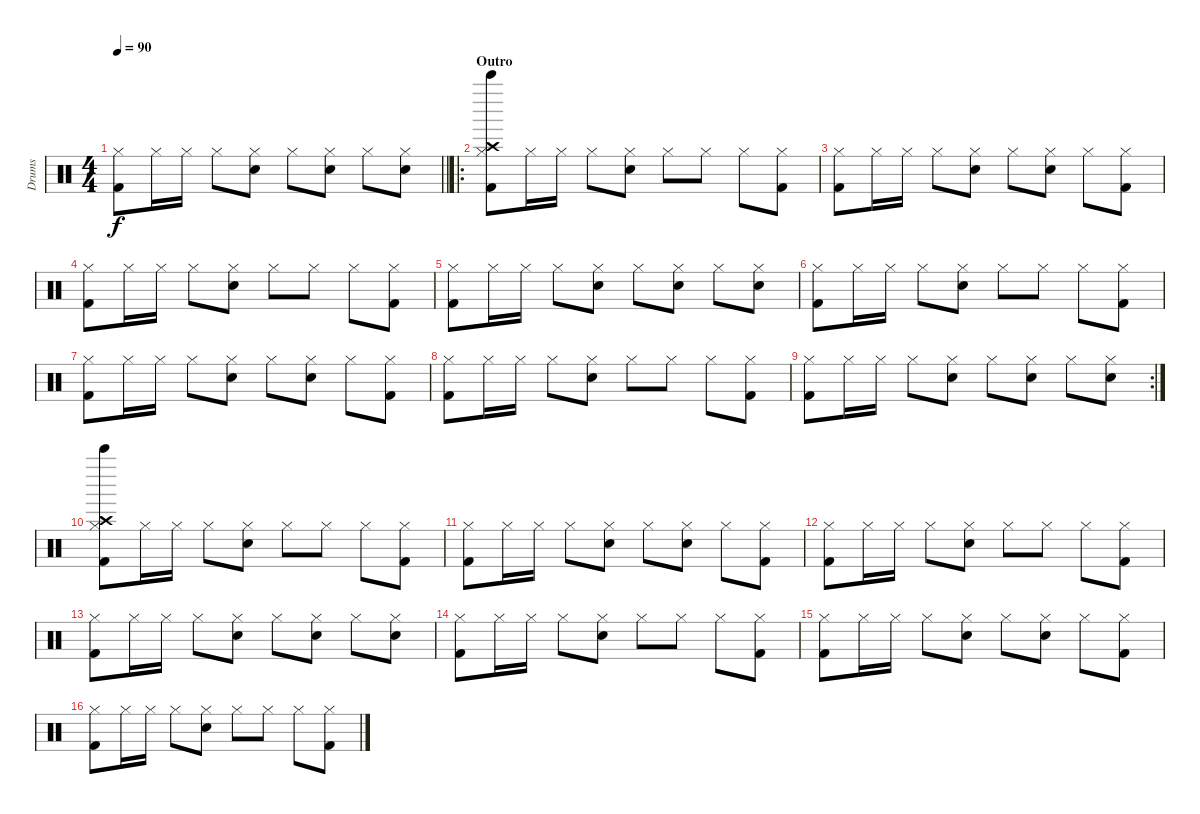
\track ("Drums" "Drums") {instrument percussion}
\staff {score}
\articulation defaults
\ts (4 4)
\tempo 90
\clef neutral
\barLineRight lightlight
\ks c
("Hi-Hat (closed)" "Kick (hit) 2").8{dy f} "Hi-Hat (closed)".16 "Hi-Hat (closed)".16 "Hi-Hat (closed)".8 ("Hi-Hat (closed)" "Snare (hit) 2").8 "Hi-Hat (closed)".8 ("Hi-Hat (closed)" "Snare (hit) 2").8 "Hi-Hat (closed)".8 ("Hi-Hat (closed)" "Snare (hit) 2").8 |
\ro
\section ("" "Outro")
("Hi-Hat (closed)" "Kick (hit) 2" "Crash high (hit)" "Bell Tree (hit)").8 "Hi-Hat (closed)".16 "Hi-Hat (closed)".16 "Hi-Hat (closed)".8 ("Hi-Hat (closed)" "Snare (hit) 2").8 "Hi-Hat (closed)".8 "Hi-Hat (closed)".8 "Hi-Hat (closed)".8 ("Hi-Hat (closed)" "Kick (hit) 2").8 |
("Hi-Hat (closed)" "Kick (hit) 2").8 "Hi-Hat (closed)".16 "Hi-Hat (closed)".16 "Hi-Hat (closed)".8 ("Hi-Hat (closed)" "Snare (hit) 2").8 "Hi-Hat (closed)".8 ("Hi-Hat (closed)" "Snare (hit) 2").8 "Hi-Hat (closed)".8 ("Hi-Hat (closed)" "Kick (hit) 2").8 |
("Hi-Hat (closed)" "Kick (hit) 2").8 "Hi-Hat (closed)".16 "Hi-Hat (closed)".16 "Hi-Hat (closed)".8 ("Hi-Hat (closed)" "Snare (hit) 2").8 "Hi-Hat (closed)".8 "Hi-Hat (closed)".8 "Hi-Hat (closed)".8 ("Hi-Hat (closed)" "Kick (hit) 2").8 |
("Hi-Hat (closed)" "Kick (hit) 2").8 "Hi-Hat (closed)".16 "Hi-Hat (closed)".16 "Hi-Hat (closed)".8 ("Hi-Hat (closed)" "Snare (hit) 2").8 "Hi-Hat (closed)".8 ("Hi-Hat (closed)" "Snare (hit) 2").8 "Hi-Hat (closed)".8 ("Hi-Hat (closed)" "Snare (hit) 2").8 |
("Hi-Hat (closed)" "Kick (hit) 2").8 "Hi-Hat (closed)".16 "Hi-Hat (closed)".16 "Hi-Hat (closed)".8 ("Hi-Hat (closed)" "Snare (hit) 2").8 "Hi-Hat (closed)".8 "Hi-Hat (closed)".8 "Hi-Hat (closed)".8 ("Hi-Hat (closed)" "Kick (hit) 2").8 |
("Hi-Hat (closed)" "Kick (hit) 2").8 "Hi-Hat (closed)".16 "Hi-Hat (closed)".16 "Hi-Hat (closed)".8 ("Hi-Hat (closed)" "Snare (hit) 2").8 "Hi-Hat (closed)".8 ("Hi-Hat (closed)" "Snare (hit) 2").8 "Hi-Hat (closed)".8 ("Hi-Hat (closed)" "Kick (hit) 2").8 |
("Hi-Hat (closed)" "Kick (hit) 2").8 "Hi-Hat (closed)".16 "Hi-Hat (closed)".16 "Hi-Hat (closed)".8 ("Hi-Hat (closed)" "Snare (hit) 2").8 "Hi-Hat (closed)".8 "Hi-Hat (closed)".8 "Hi-Hat (closed)".8 ("Hi-Hat (closed)" "Kick (hit) 2").8 |
\rc 2
("Hi-Hat (closed)" "Kick (hit) 2").8 "Hi-Hat (closed)".16 "Hi-Hat (closed)".16 "Hi-Hat (closed)".8 ("Hi-Hat (closed)" "Snare (hit) 2").8 "Hi-Hat (closed)".8 ("Hi-Hat (closed)" "Snare (hit) 2").8 "Hi-Hat (closed)".8 ("Hi-Hat (closed)" "Snare (hit) 2").8 |
("Hi-Hat (closed)" "Crash high (hit)" "Kick (hit) 2" "Bell Tree (hit)").8 "Hi-Hat (closed)".16 "Hi-Hat (closed)".16 "Hi-Hat (closed)".8 ("Hi-Hat (closed)" "Snare (hit) 2").8 "Hi-Hat (closed)".8 "Hi-Hat (closed)".8 "Hi-Hat (closed)".8 ("Hi-Hat (closed)" "Kick (hit) 2").8 |
("Hi-Hat (closed)" "Kick (hit) 2").8 "Hi-Hat (closed)".16 "Hi-Hat (closed)".16 "Hi-Hat (closed)".8 ("Hi-Hat (closed)" "Snare (hit) 2").8 "Hi-Hat (closed)".8 ("Hi-Hat (closed)" "Snare (hit) 2").8 "Hi-Hat (closed)".8 ("Hi-Hat (closed)" "Kick (hit) 2").8 |
("Hi-Hat (closed)" "Kick (hit) 2").8 "Hi-Hat (closed)".16 "Hi-Hat (closed)".16 "Hi-Hat (closed)".8 ("Hi-Hat (closed)" "Snare (hit) 2").8 "Hi-Hat (closed)".8 "Hi-Hat (closed)".8 "Hi-Hat (closed)".8 ("Hi-Hat (closed)" "Kick (hit) 2").8 |
("Hi-Hat (closed)" "Kick (hit) 2").8 "Hi-Hat (closed)".16 "Hi-Hat (closed)".16 "Hi-Hat (closed)".8 ("Hi-Hat (closed)" "Snare (hit) 2").8 "Hi-Hat (closed)".8 ("Hi-Hat (closed)" "Snare (hit) 2").8 "Hi-Hat (closed)".8 ("Hi-Hat (closed)" "Snare (hit) 2").8 |
("Hi-Hat (closed)" "Kick (hit) 2").8 "Hi-Hat (closed)".16 "Hi-Hat (closed)".16 "Hi-Hat (closed)".8 ("Hi-Hat (closed)" "Snare (hit) 2").8 "Hi-Hat (closed)".8 "Hi-Hat (closed)".8 "Hi-Hat (closed)".8 ("Hi-Hat (closed)" "Kick (hit) 2").8 |
("Hi-Hat (closed)" "Kick (hit) 2").8 "Hi-Hat (closed)".16 "Hi-Hat (closed)".16 "Hi-Hat (closed)".8 ("Hi-Hat (closed)" "Snare (hit) 2").8 "Hi-Hat (closed)".8 ("Hi-Hat (closed)" "Snare (hit) 2").8 "Hi-Hat (closed)".8 ("Hi-Hat (closed)" "Kick (hit) 2").8 |
("Hi-Hat (closed)" "Kick (hit) 2").8 "Hi-Hat (closed)".16 "Hi-Hat (closed)".16 "Hi-Hat (closed)".8 ("Hi-Hat (closed)" "Snare (hit) 2").8 "Hi-Hat (closed)".8 "Hi-Hat (closed)".8 "Hi-Hat (closed)".8 ("Hi-Hat (closed)" "Kick (hit) 2").8
